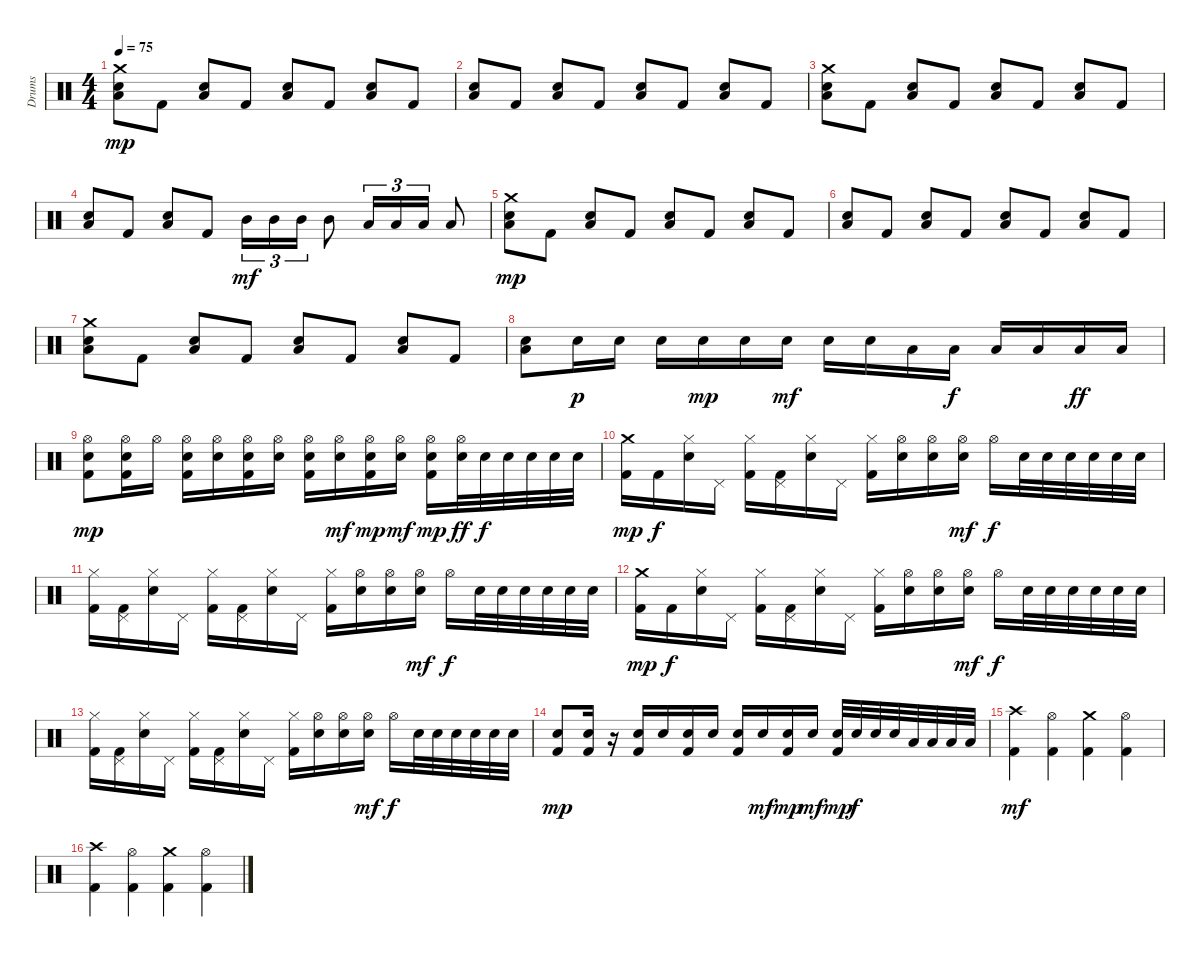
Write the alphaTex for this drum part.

\track ("Drums" "Drums") {instrument percussion}
\staff {score}
\articulation defaults
\ts (4 4)
\tempo 75
\clef neutral
\ks c
("Crash medium (hit)" "Low Floor Tom (hit)" "Electric Snare (hit)").8{dy mp} "Kick (hit) 2".8 ("Low Floor Tom (hit)" "Electric Snare (hit)").8 "Kick (hit) 2".8 ("Low Floor Tom (hit)" "Electric Snare (hit)").8 "Kick (hit) 2".8 ("Low Floor Tom (hit)" "Electric Snare (hit)").8 "Kick (hit) 2".8 |
("Low Floor Tom (hit)" "Electric Snare (hit)").8 "Kick (hit) 2".8 ("Low Floor Tom (hit)" "Electric Snare (hit)").8 "Kick (hit) 2".8 ("Low Floor Tom (hit)" "Electric Snare (hit)").8 "Kick (hit) 2".8 ("Low Floor Tom (hit)" "Electric Snare (hit)").8 "Kick (hit) 2".8 |
("Crash medium (hit)" "Low Floor Tom (hit)" "Electric Snare (hit)").8 "Kick (hit) 2".8 ("Low Floor Tom (hit)" "Electric Snare (hit)").8 "Kick (hit) 2".8 ("Low Floor Tom (hit)" "Electric Snare (hit)").8 "Kick (hit) 2".8 ("Low Floor Tom (hit)" "Electric Snare (hit)").8 "Kick (hit) 2".8 |
("Low Floor Tom (hit)" "Electric Snare (hit)").8 "Kick (hit) 2".8 ("Low Floor Tom (hit)" "Electric Snare (hit)").8 "Kick (hit) 2".8 "Mid Tom (hit)".16{tu (3 2) dy mf} "Mid Tom (hit)".16{tu (3 2)} "Mid Tom (hit)".16{tu (3 2)} "Mid Tom (hit)".8 "Low Tom (hit)".16{tu (3 2)} "Low Tom (hit)".16{tu (3 2)} "Low Tom (hit)".16{tu (3 2)} "Low Tom (hit)".8 |
("Crash medium (hit)" "Low Floor Tom (hit)" "Electric Snare (hit)").8{dy mp} "Kick (hit) 2".8 ("Low Floor Tom (hit)" "Electric Snare (hit)").8 "Kick (hit) 2".8 ("Low Floor Tom (hit)" "Electric Snare (hit)").8 "Kick (hit) 2".8 ("Low Floor Tom (hit)" "Electric Snare (hit)").8 "Kick (hit) 2".8 |
("Low Floor Tom (hit)" "Electric Snare (hit)").8 "Kick (hit) 2".8 ("Low Floor Tom (hit)" "Electric Snare (hit)").8 "Kick (hit) 2".8 ("Low Floor Tom (hit)" "Electric Snare (hit)").8 "Kick (hit) 2".8 ("Low Floor Tom (hit)" "Electric Snare (hit)").8 "Kick (hit) 2".8 |
("Crash medium (hit)" "Low Floor Tom (hit)" "Electric Snare (hit)").8 "Kick (hit) 2".8 ("Low Floor Tom (hit)" "Electric Snare (hit)").8 "Kick (hit) 2".8 ("Low Floor Tom (hit)" "Electric Snare (hit)").8 "Kick (hit) 2".8 ("Low Floor Tom (hit)" "Electric Snare (hit)").8 "Kick (hit) 2".8 |
("Low Floor Tom (hit)" "Electric Snare (hit)").8 "Electric Snare (hit)".16{dy p} "Electric Snare (hit)".16 "Electric Snare (hit)".16 "Electric Snare (hit)".16{dy mp} "Electric Snare (hit)".16 "Electric Snare (hit)".16{dy mf} "Electric Snare (hit)".16 "Electric Snare (hit)".16 "Low Tom (hit)".16 "Low Tom (hit)".16{dy f} "Low Tom (hit)".16 "Low Tom (hit)".16 "Low Tom (hit)".16{dy ff} "Low Tom (hit)".16 |
("Hi-Hat (open)" "Electric Snare (hit)" "Kick (hit) 2").8{dy mp} ("Hi-Hat (open)" "Electric Snare (hit)" "Kick (hit) 2").16 "Hi-Hat (open)".16 ("Hi-Hat (open)" "Electric Snare (hit)" "Kick (hit) 2").16 ("Hi-Hat (open)" "Electric Snare (hit)").16 ("Hi-Hat (open)" "Electric Snare (hit)" "Kick (hit) 2").16 ("Hi-Hat (open)" "Electric Snare (hit)").16 ("Hi-Hat (open)" "Electric Snare (hit)" "Kick (hit) 2").16 ("Hi-Hat (open)" "Electric Snare (hit)").16{dy mf} ("Hi-Hat (open)" "Electric Snare (hit)" "Kick (hit) 2").16{dy mp} ("Hi-Hat (open)" "Electric Snare (hit)").16{dy mf} ("Hi-Hat (open)" "Electric Snare (hit)" "Kick (hit) 2").16{dy mp} ("Hi-Hat (open)" "Electric Snare (hit)").32{dy ff} "Electric Snare (hit)".32{dy f} "Electric Snare (hit)".32 "Electric Snare (hit)".32 "Electric Snare (hit)".32 "Electric Snare (hit)".32 |
("Crash medium (hit)" "Kick (hit) 2").16{dy mp} "Kick (hit) 2".16{dy f} ("Hi-Hat (closed)" "Electric Snare (hit)").16 "Pedal Hi-Hat (hit)".16 ("Hi-Hat (closed)" "Kick (hit) 2").16 ("Pedal Hi-Hat (hit)" "Kick (hit) 2").16 ("Hi-Hat (closed)" "Electric Snare (hit)").16 "Pedal Hi-Hat (hit)".16 ("Hi-Hat (closed)" "Kick (hit) 2").16 ("Hi-Hat (open)" "Electric Snare (hit)").16 ("Hi-Hat (open)" "Electric Snare (hit)").16 ("Hi-Hat (open)" "Electric Snare (hit)").16{dy mf} "Hi-Hat (open)".16{dy f} "Electric Snare (hit)".32 "Electric Snare (hit)".32 "Electric Snare (hit)".32 "Electric Snare (hit)".32 "Electric Snare (hit)".32 "Electric Snare (hit)".32 |
("Hi-Hat (closed)" "Kick (hit) 2").16 ("Pedal Hi-Hat (hit)" "Kick (hit) 2").16 ("Hi-Hat (closed)" "Electric Snare (hit)").16 "Pedal Hi-Hat (hit)".16 ("Hi-Hat (closed)" "Kick (hit) 2").16 ("Pedal Hi-Hat (hit)" "Kick (hit) 2").16 ("Hi-Hat (closed)" "Electric Snare (hit)").16 "Pedal Hi-Hat (hit)".16 ("Hi-Hat (closed)" "Kick (hit) 2").16 ("Hi-Hat (open)" "Electric Snare (hit)").16 ("Hi-Hat (open)" "Electric Snare (hit)").16 ("Hi-Hat (open)" "Electric Snare (hit)").16{dy mf} "Hi-Hat (open)".16{dy f} "Electric Snare (hit)".32 "Electric Snare (hit)".32 "Electric Snare (hit)".32 "Electric Snare (hit)".32 "Electric Snare (hit)".32 "Electric Snare (hit)".32 |
("Crash medium (hit)" "Kick (hit) 2").16{dy mp} "Kick (hit) 2".16{dy f} ("Hi-Hat (closed)" "Electric Snare (hit)").16 "Pedal Hi-Hat (hit)".16 ("Hi-Hat (closed)" "Kick (hit) 2").16 ("Pedal Hi-Hat (hit)" "Kick (hit) 2").16 ("Hi-Hat (closed)" "Electric Snare (hit)").16 "Pedal Hi-Hat (hit)".16 ("Hi-Hat (closed)" "Kick (hit) 2").16 ("Hi-Hat (open)" "Electric Snare (hit)").16 ("Hi-Hat (open)" "Electric Snare (hit)").16 ("Hi-Hat (open)" "Electric Snare (hit)").16{dy mf} "Hi-Hat (open)".16{dy f} "Electric Snare (hit)".32 "Electric Snare (hit)".32 "Electric Snare (hit)".32 "Electric Snare (hit)".32 "Electric Snare (hit)".32 "Electric Snare (hit)".32 |
("Hi-Hat (closed)" "Kick (hit) 2").16 ("Pedal Hi-Hat (hit)" "Kick (hit) 2").16 ("Hi-Hat (closed)" "Electric Snare (hit)").16 "Pedal Hi-Hat (hit)".16 ("Hi-Hat (closed)" "Kick (hit) 2").16 ("Pedal Hi-Hat (hit)" "Kick (hit) 2").16 ("Hi-Hat (closed)" "Electric Snare (hit)").16 "Pedal Hi-Hat (hit)".16 ("Hi-Hat (closed)" "Kick (hit) 2").16 ("Hi-Hat (open)" "Electric Snare (hit)").16 ("Hi-Hat (open)" "Electric Snare (hit)").16 ("Hi-Hat (open)" "Electric Snare (hit)").16{dy mf} "Hi-Hat (open)".16{dy f} "Electric Snare (hit)".32 "Electric Snare (hit)".32 "Electric Snare (hit)".32 "Electric Snare (hit)".32 "Electric Snare (hit)".32 "Electric Snare (hit)".32 |
("Electric Snare (hit)" "Kick (hit) 2").8{dy mp} ("Electric Snare (hit)" "Kick (hit) 2").16 r.16 ("Electric Snare (hit)" "Kick (hit) 2").16 "Electric Snare (hit)".16 ("Electric Snare (hit)" "Kick (hit) 2").16 "Electric Snare (hit)".16 ("Electric Snare (hit)" "Kick (hit) 2").16 "Electric Snare (hit)".16{dy mf} ("Electric Snare (hit)" "Kick (hit) 2").16{dy mp} "Electric Snare (hit)".16{dy mf} ("Electric Snare (hit)" "Kick (hit) 2").32{dy mp} "Electric Snare (hit)".32{dy f} "Electric Snare (hit)".32 "Electric Snare (hit)".32 "Low Tom (hit)".32 "Low Tom (hit)".32 "Low Tom (hit)".32 "Low Tom (hit)".32 |
("Crash high (hit)" "Kick (hit) 2").4{dy mf} ("Hi-Hat (open)" "Kick (hit) 2").4 ("Crash medium (hit)" "Kick (hit) 2").4 ("Hi-Hat (open)" "Kick (hit) 2").4 |
("Crash high (hit)" "Kick (hit) 2").4 ("Hi-Hat (open)" "Kick (hit) 2").4 ("Crash medium (hit)" "Kick (hit) 2").4 ("Hi-Hat (open)" "Kick (hit) 2").4
